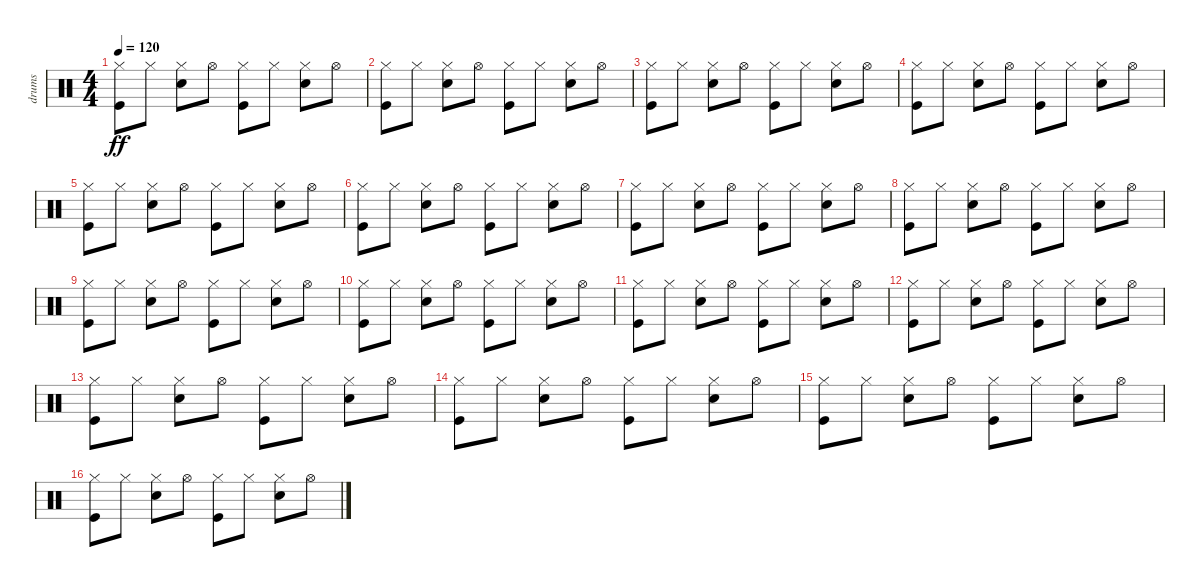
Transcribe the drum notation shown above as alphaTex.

\track ("drums" "drums") {instrument percussion}
\staff {score}
\articulation defaults
\ts (4 4)
\tempo 120
\clef neutral
\ks c
("Hi-Hat (closed)" "Kick (hit)").8{dy ff} "Hi-Hat (closed)".8 ("Hi-Hat (closed)" "Snare (hit) 2").8 "Hi-Hat (open)".8 ("Hi-Hat (closed)" "Kick (hit)").8 "Hi-Hat (closed)".8 ("Hi-Hat (closed)" "Snare (hit) 2").8 "Hi-Hat (open)".8 |
("Hi-Hat (closed)" "Kick (hit)").8 "Hi-Hat (closed)".8 ("Hi-Hat (closed)" "Snare (hit) 2").8 "Hi-Hat (open)".8 ("Hi-Hat (closed)" "Kick (hit)").8 "Hi-Hat (closed)".8 ("Hi-Hat (closed)" "Snare (hit) 2").8 "Hi-Hat (open)".8 |
("Hi-Hat (closed)" "Kick (hit)").8 "Hi-Hat (closed)".8 ("Hi-Hat (closed)" "Snare (hit) 2").8 "Hi-Hat (open)".8 ("Hi-Hat (closed)" "Kick (hit)").8 "Hi-Hat (closed)".8 ("Hi-Hat (closed)" "Snare (hit) 2").8 "Hi-Hat (open)".8 |
("Hi-Hat (closed)" "Kick (hit)").8 "Hi-Hat (closed)".8 ("Hi-Hat (closed)" "Snare (hit) 2").8 "Hi-Hat (open)".8 ("Hi-Hat (closed)" "Kick (hit)").8 "Hi-Hat (closed)".8 ("Hi-Hat (closed)" "Snare (hit) 2").8 "Hi-Hat (open)".8 |
("Hi-Hat (closed)" "Kick (hit)").8 "Hi-Hat (closed)".8 ("Hi-Hat (closed)" "Snare (hit) 2").8 "Hi-Hat (open)".8 ("Hi-Hat (closed)" "Kick (hit)").8 "Hi-Hat (closed)".8 ("Hi-Hat (closed)" "Snare (hit) 2").8 "Hi-Hat (open)".8 |
("Hi-Hat (closed)" "Kick (hit)").8 "Hi-Hat (closed)".8 ("Hi-Hat (closed)" "Snare (hit) 2").8 "Hi-Hat (open)".8 ("Hi-Hat (closed)" "Kick (hit)").8 "Hi-Hat (closed)".8 ("Hi-Hat (closed)" "Snare (hit) 2").8 "Hi-Hat (open)".8 |
("Hi-Hat (closed)" "Kick (hit)").8 "Hi-Hat (closed)".8 ("Hi-Hat (closed)" "Snare (hit) 2").8 "Hi-Hat (open)".8 ("Hi-Hat (closed)" "Kick (hit)").8 "Hi-Hat (closed)".8 ("Hi-Hat (closed)" "Snare (hit) 2").8 "Hi-Hat (open)".8 |
("Hi-Hat (closed)" "Kick (hit)").8 "Hi-Hat (closed)".8 ("Hi-Hat (closed)" "Snare (hit) 2").8 "Hi-Hat (open)".8 ("Hi-Hat (closed)" "Kick (hit)").8 "Hi-Hat (closed)".8 ("Hi-Hat (closed)" "Snare (hit) 2").8 "Hi-Hat (open)".8 |
("Hi-Hat (closed)" "Kick (hit)").8 "Hi-Hat (closed)".8 ("Hi-Hat (closed)" "Snare (hit) 2").8 "Hi-Hat (open)".8 ("Hi-Hat (closed)" "Kick (hit)").8 "Hi-Hat (closed)".8 ("Hi-Hat (closed)" "Snare (hit) 2").8 "Hi-Hat (open)".8 |
("Hi-Hat (closed)" "Kick (hit)").8 "Hi-Hat (closed)".8 ("Hi-Hat (closed)" "Snare (hit) 2").8 "Hi-Hat (open)".8 ("Hi-Hat (closed)" "Kick (hit)").8 "Hi-Hat (closed)".8 ("Hi-Hat (closed)" "Snare (hit) 2").8 "Hi-Hat (open)".8 |
("Hi-Hat (closed)" "Kick (hit)").8 "Hi-Hat (closed)".8 ("Hi-Hat (closed)" "Snare (hit) 2").8 "Hi-Hat (open)".8 ("Hi-Hat (closed)" "Kick (hit)").8 "Hi-Hat (closed)".8 ("Hi-Hat (closed)" "Snare (hit) 2").8 "Hi-Hat (open)".8 |
("Hi-Hat (closed)" "Kick (hit)").8 "Hi-Hat (closed)".8 ("Hi-Hat (closed)" "Snare (hit) 2").8 "Hi-Hat (open)".8 ("Hi-Hat (closed)" "Kick (hit)").8 "Hi-Hat (closed)".8 ("Hi-Hat (closed)" "Snare (hit) 2").8 "Hi-Hat (open)".8 |
("Hi-Hat (closed)" "Kick (hit)").8 "Hi-Hat (closed)".8 ("Hi-Hat (closed)" "Snare (hit) 2").8 "Hi-Hat (open)".8 ("Hi-Hat (closed)" "Kick (hit)").8 "Hi-Hat (closed)".8 ("Hi-Hat (closed)" "Snare (hit) 2").8 "Hi-Hat (open)".8 |
("Hi-Hat (closed)" "Kick (hit)").8 "Hi-Hat (closed)".8 ("Hi-Hat (closed)" "Snare (hit) 2").8 "Hi-Hat (open)".8 ("Hi-Hat (closed)" "Kick (hit)").8 "Hi-Hat (closed)".8 ("Hi-Hat (closed)" "Snare (hit) 2").8 "Hi-Hat (open)".8 |
("Hi-Hat (closed)" "Kick (hit)").8 "Hi-Hat (closed)".8 ("Hi-Hat (closed)" "Snare (hit) 2").8 "Hi-Hat (open)".8 ("Hi-Hat (closed)" "Kick (hit)").8 "Hi-Hat (closed)".8 ("Hi-Hat (closed)" "Snare (hit) 2").8 "Hi-Hat (open)".8 |
("Hi-Hat (closed)" "Kick (hit)").8 "Hi-Hat (closed)".8 ("Hi-Hat (closed)" "Snare (hit) 2").8 "Hi-Hat (open)".8 ("Hi-Hat (closed)" "Kick (hit)").8 "Hi-Hat (closed)".8 ("Hi-Hat (closed)" "Snare (hit) 2").8 "Hi-Hat (open)".8
